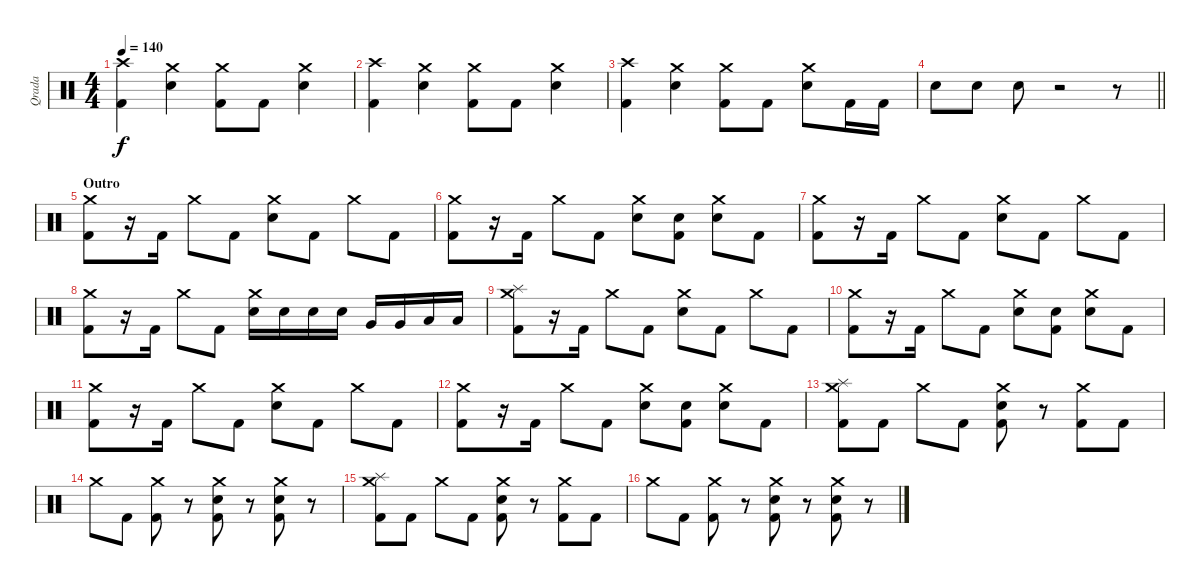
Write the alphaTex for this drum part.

\track ("Qrada" "Qrada") {instrument percussion}
\staff {score}
\articulation defaults
\ts (4 4)
\tempo 140
\clef neutral
\ks c
("Kick (hit) 2" "Crash high (hit)").4{dy f} ("Snare (hit) 2" "Crash medium (hit)").4 ("Kick (hit) 2" "Crash medium (hit)").8 "Kick (hit) 2".8 ("Snare (hit) 2" "Crash medium (hit)").4 |
("Kick (hit) 2" "Crash high (hit)").4 ("Snare (hit) 2" "Crash medium (hit)").4 ("Kick (hit) 2" "Crash medium (hit)").8 "Kick (hit) 2".8 ("Snare (hit) 2" "Crash medium (hit)").4 |
("Kick (hit) 2" "Crash high (hit)").4 ("Snare (hit) 2" "Crash medium (hit)").4 ("Kick (hit) 2" "Crash medium (hit)").8 "Kick (hit) 2".8 ("Snare (hit) 2" "Crash medium (hit)").8 "Kick (hit) 2".16 "Kick (hit) 2".16 |
\barLineRight lightlight "Snare (hit) 2".8 "Snare (hit) 2".8 "Snare (hit) 2".8
r.2 r.8 |
\section ("" "Outro")
("Kick (hit) 2" "Crash medium (hit)").8 r.16 "Kick (hit) 2".16 "Crash medium (hit)".8 "Kick (hit) 2".8 ("Snare (hit) 2" "Crash medium (hit)").8 "Kick (hit) 2".8 "Crash medium (hit)".8 "Kick (hit) 2".8 |
("Kick (hit) 2" "Crash medium (hit)").8 r.16 "Kick (hit) 2".16 "Crash medium (hit)".8 "Kick (hit) 2".8 ("Snare (hit) 2" "Crash medium (hit)").8 ("Kick (hit) 2" "Snare (hit) 2").8 ("Snare (hit) 2" "Crash medium (hit)").8 "Kick (hit) 2".8 |
("Kick (hit) 2" "Crash medium (hit)").8 r.16 "Kick (hit) 2".16 "Crash medium (hit)".8 "Kick (hit) 2".8 ("Snare (hit) 2" "Crash medium (hit)").8 "Kick (hit) 2".8 "Crash medium (hit)".8 "Kick (hit) 2".8 |
("Kick (hit) 2" "Crash medium (hit)").8 r.16 "Kick (hit) 2".16 "Crash medium (hit)".8 "Kick (hit) 2".8 ("Snare (hit) 2" "Crash medium (hit)").16 "Snare (hit) 2".16 "Snare (hit) 2".16 "Snare (hit) 2".16 "Very Low Tom (hit)".16 "Very Low Tom (hit)".16 "Low Floor Tom (hit)".16 "Low Floor Tom (hit)".16 |
("Kick (hit) 2" "Crash medium (hit)" "Splash (hit)").8 r.16 "Kick (hit) 2".16 "Crash medium (hit)".8 "Kick (hit) 2".8 ("Snare (hit) 2" "Crash medium (hit)").8 "Kick (hit) 2".8 "Crash medium (hit)".8 "Kick (hit) 2".8 |
("Kick (hit) 2" "Crash medium (hit)").8 r.16 "Kick (hit) 2".16 "Crash medium (hit)".8 "Kick (hit) 2".8 ("Snare (hit) 2" "Crash medium (hit)").8 ("Kick (hit) 2" "Snare (hit) 2").8 ("Snare (hit) 2" "Crash medium (hit)").8 "Kick (hit) 2".8 |
("Kick (hit) 2" "Crash medium (hit)").8 r.16 "Kick (hit) 2".16 "Crash medium (hit)".8 "Kick (hit) 2".8 ("Snare (hit) 2" "Crash medium (hit)").8 "Kick (hit) 2".8 "Crash medium (hit)".8 "Kick (hit) 2".8 |
("Kick (hit) 2" "Crash medium (hit)").8 r.16 "Kick (hit) 2".16 "Crash medium (hit)".8 "Kick (hit) 2".8 ("Snare (hit) 2" "Crash medium (hit)").8 ("Kick (hit) 2" "Snare (hit) 2").8 ("Snare (hit) 2" "Crash medium (hit)").8 "Kick (hit) 2".8 |
("Kick (hit) 2" "Crash medium (hit)" "Splash (hit)").8 "Kick (hit) 2".8 "Crash medium (hit)".8 "Kick (hit) 2".8 ("Kick (hit) 2" "Snare (hit) 2" "Crash medium (hit)").8 r.8 ("Kick (hit) 2" "Crash medium (hit)").8 "Kick (hit) 2".8 |
"Crash medium (hit)".8 "Kick (hit) 2".8 ("Kick (hit) 2" "Crash medium (hit)").8 r.8 ("Kick (hit) 2" "Snare (hit) 2" "Crash medium (hit)").8 r.8 ("Kick (hit) 2" "Snare (hit) 2" "Crash medium (hit)").8 r.8 |
("Kick (hit) 2" "Crash medium (hit)" "Splash (hit)").8 "Kick (hit) 2".8 "Crash medium (hit)".8 "Kick (hit) 2".8 ("Kick (hit) 2" "Snare (hit) 2" "Crash medium (hit)").8 r.8 ("Kick (hit) 2" "Crash medium (hit)").8 "Kick (hit) 2".8 |
"Crash medium (hit)".8 "Kick (hit) 2".8 ("Kick (hit) 2" "Crash medium (hit)").8 r.8 ("Kick (hit) 2" "Snare (hit) 2" "Crash medium (hit)").8 r.8 ("Kick (hit) 2" "Snare (hit) 2" "Crash medium (hit)").8 r.8
